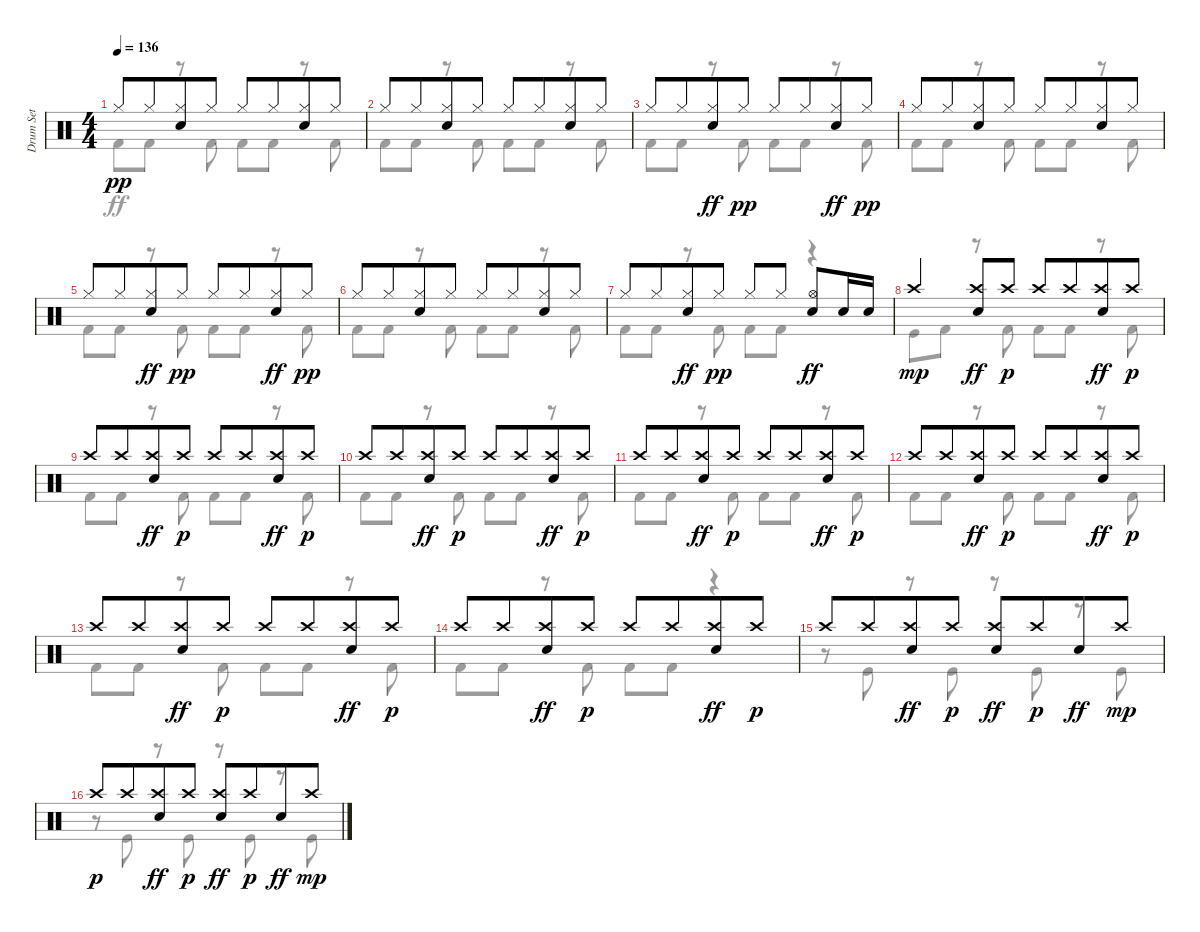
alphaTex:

\track ("Drum Set" "Drum Set") {instrument percussion}
\staff {score}
\articulation defaults
\voice
\ts (4 4)
\tempo 136
\clef neutral
\ks c "Hi-Hat (closed)".8{dy pp} "Hi-Hat (closed)".8{beam merge}
("Electric Snare (hit)" "Hi-Hat (closed)").8 "Hi-Hat (closed)".8 "Hi-Hat (closed)".8 "Hi-Hat (closed)".8{beam merge} ("Electric Snare (hit)" "Hi-Hat (closed)").8 "Hi-Hat (closed)".8 |
"Hi-Hat (closed)".8 "Hi-Hat (closed)".8{beam merge} ("Electric Snare (hit)" "Hi-Hat (closed)").8 "Hi-Hat (closed)".8 "Hi-Hat (closed)".8 "Hi-Hat (closed)".8{beam merge} ("Electric Snare (hit)" "Hi-Hat (closed)").8 "Hi-Hat (closed)".8 |
"Hi-Hat (closed)".8 "Hi-Hat (closed)".8{beam merge} ("Hi-Hat (closed)" "Electric Snare (hit)").8{dy ff} "Hi-Hat (closed)".8{dy pp} "Hi-Hat (closed)".8 "Hi-Hat (closed)".8{beam merge} ("Hi-Hat (closed)" "Electric Snare (hit)").8{dy ff} "Hi-Hat (closed)".8{dy pp} |
"Hi-Hat (closed)".8 "Hi-Hat (closed)".8{beam merge} ("Electric Snare (hit)" "Hi-Hat (closed)").8 "Hi-Hat (closed)".8 "Hi-Hat (closed)".8 "Hi-Hat (closed)".8{beam merge} ("Electric Snare (hit)" "Hi-Hat (closed)").8 "Hi-Hat (closed)".8 |
"Hi-Hat (closed)".8 "Hi-Hat (closed)".8{beam merge} ("Hi-Hat (closed)" "Electric Snare (hit)").8{dy ff} "Hi-Hat (closed)".8{dy pp} "Hi-Hat (closed)".8 "Hi-Hat (closed)".8{beam merge} ("Hi-Hat (closed)" "Electric Snare (hit)").8{dy ff} "Hi-Hat (closed)".8{dy pp} |
"Hi-Hat (closed)".8 "Hi-Hat (closed)".8{beam merge} ("Electric Snare (hit)" "Hi-Hat (closed)").8 "Hi-Hat (closed)".8 "Hi-Hat (closed)".8 "Hi-Hat (closed)".8{beam merge} ("Electric Snare (hit)" "Hi-Hat (closed)").8 "Hi-Hat (closed)".8 |
"Hi-Hat (closed)".8 "Hi-Hat (closed)".8{beam merge} ("Hi-Hat (closed)" "Electric Snare (hit)").8{dy ff} "Hi-Hat (closed)".8{dy pp} "Hi-Hat (closed)".8 "Hi-Hat (closed)".8{beam split} ("Hi-Hat (open)" "Electric Snare (hit)").8{dy ff} "Electric Snare (hit)".16 "Electric Snare (hit)".16 |
"Crash high (hit)".4{dy mp beam merge} ("Crash high (hit)" "Electric Snare (hit)").8{dy ff} "Crash high (hit)".8{dy p} "Crash high (hit)".8 "Crash high (hit)".8{beam merge} ("Crash high (hit)" "Electric Snare (hit)").8{dy ff} "Crash high (hit)".8{dy p} |
"Crash high (hit)".8 "Crash high (hit)".8{beam merge} ("Crash high (hit)" "Electric Snare (hit)").8{dy ff} "Crash high (hit)".8{dy p} "Crash high (hit)".8 "Crash high (hit)".8{beam merge} ("Crash high (hit)" "Electric Snare (hit)").8{dy ff} "Crash high (hit)".8{dy p} |
"Crash high (hit)".8 "Crash high (hit)".8{beam merge} ("Crash high (hit)" "Electric Snare (hit)").8{dy ff} "Crash high (hit)".8{dy p} "Crash high (hit)".8 "Crash high (hit)".8{beam merge} ("Crash high (hit)" "Electric Snare (hit)").8{dy ff} "Crash high (hit)".8{dy p} |
"Crash high (hit)".8 "Crash high (hit)".8{beam merge} ("Crash high (hit)" "Electric Snare (hit)").8{dy ff} "Crash high (hit)".8{dy p} "Crash high (hit)".8 "Crash high (hit)".8{beam merge} ("Crash high (hit)" "Electric Snare (hit)").8{dy ff} "Crash high (hit)".8{dy p} |
"Crash high (hit)".8 "Crash high (hit)".8{beam merge} ("Crash high (hit)" "Electric Snare (hit)").8{dy ff} "Crash high (hit)".8{dy p} "Crash high (hit)".8 "Crash high (hit)".8{beam merge} ("Crash high (hit)" "Electric Snare (hit)").8{dy ff} "Crash high (hit)".8{dy p} |
"Crash high (hit)".8 "Crash high (hit)".8{beam merge} ("Crash high (hit)" "Electric Snare (hit)").8{dy ff} "Crash high (hit)".8{dy p} "Crash high (hit)".8 "Crash high (hit)".8{beam merge} ("Crash high (hit)" "Electric Snare (hit)").8{dy ff} "Crash high (hit)".8{dy p} |
"Crash high (hit)".8 "Crash high (hit)".8{beam merge} ("Crash high (hit)" "Electric Snare (hit)").8{dy ff} "Crash high (hit)".8{dy p} "Crash high (hit)".8 "Crash high (hit)".8{beam merge} ("Crash high (hit)" "Electric Snare (hit)").8{dy ff} "Crash high (hit)".8{dy p} |
"Crash high (hit)".8 "Crash high (hit)".8{beam merge} ("Crash high (hit)" "Electric Snare (hit)").8{dy ff} "Crash high (hit)".8{dy p} ("Crash high (hit)" "Electric Snare (hit)").8{dy ff} "Crash high (hit)".8{dy p beam merge} "Electric Snare (hit)".8{dy ff} "Crash high (hit)".8{dy mp} |
"Crash high (hit)".8{dy p} "Crash high (hit)".8{beam merge} ("Crash high (hit)" "Electric Snare (hit)").8{dy ff} "Crash high (hit)".8{dy p} ("Crash high (hit)" "Electric Snare (hit)").8{dy ff} "Crash high (hit)".8{dy p beam merge} "Electric Snare (hit)".8{dy ff} "Crash high (hit)".8{dy mp}
\voice
\clef neutral
\ottava regular
\simile none
\ks c "Kick (hit) 2".8{dy ff} "Kick (hit) 2".8
r.8 "Kick (hit) 2".8 "Kick (hit) 2".8 "Kick (hit) 2".8 r.8 "Kick (hit) 2".8 |
"Kick (hit) 2".8 "Kick (hit) 2".8 r.8 "Kick (hit) 2".8 "Kick (hit) 2".8 "Kick (hit) 2".8 r.8 "Kick (hit) 2".8 |
"Kick (hit) 2".8 "Kick (hit) 2".8 r.8 "Kick (hit) 2".8 "Kick (hit) 2".8 "Kick (hit) 2".8 r.8 "Kick (hit) 2".8 |
"Kick (hit) 2".8 "Kick (hit) 2".8 r.8 "Kick (hit) 2".8 "Kick (hit) 2".8 "Kick (hit) 2".8 r.8 "Kick (hit) 2".8 |
"Kick (hit) 2".8 "Kick (hit) 2".8 r.8 "Kick (hit) 2".8 "Kick (hit) 2".8 "Kick (hit) 2".8 r.8 "Kick (hit) 2".8 |
"Kick (hit) 2".8 "Kick (hit) 2".8 r.8 "Kick (hit) 2".8 "Kick (hit) 2".8 "Kick (hit) 2".8 r.8 "Kick (hit) 2".8 |
"Kick (hit) 2".8 "Kick (hit) 2".8 r.8 "Kick (hit) 2".8 "Kick (hit) 2".8 "Kick (hit) 2".8 r.4 |
"Kick (hit)".8 "Kick (hit) 2".8 r.8 "Kick (hit) 2".8 "Kick (hit) 2".8 "Kick (hit) 2".8 r.8 "Kick (hit) 2".8 |
"Kick (hit) 2".8 "Kick (hit) 2".8 r.8 "Kick (hit) 2".8 "Kick (hit) 2".8 "Kick (hit) 2".8 r.8 "Kick (hit) 2".8 |
"Kick (hit) 2".8 "Kick (hit) 2".8 r.8 "Kick (hit) 2".8 "Kick (hit) 2".8 "Kick (hit) 2".8 r.8 "Kick (hit) 2".8 |
"Kick (hit) 2".8 "Kick (hit) 2".8 r.8 "Kick (hit) 2".8 "Kick (hit) 2".8 "Kick (hit) 2".8 r.8 "Kick (hit) 2".8 |
"Kick (hit) 2".8 "Kick (hit) 2".8 r.8 "Kick (hit) 2".8 "Kick (hit) 2".8 "Kick (hit) 2".8 r.8 "Kick (hit) 2".8 |
"Kick (hit) 2".8 "Kick (hit) 2".8 r.8 "Kick (hit) 2".8 "Kick (hit) 2".8 "Kick (hit) 2".8 r.8 "Kick (hit) 2".8 |
"Kick (hit) 2".8 "Kick (hit) 2".8 r.8 "Kick (hit) 2".8 "Kick (hit) 2".8 "Kick (hit) 2".8 r.4 |
r.8 "Kick (hit)".8 r.8 "Kick (hit)".8 r.8 "Kick (hit)".8 r.8 "Kick (hit)".8 |
r.8 "Kick (hit)".8 r.8 "Kick (hit)".8 r.8 "Kick (hit)".8 r.8 "Kick (hit)".8
